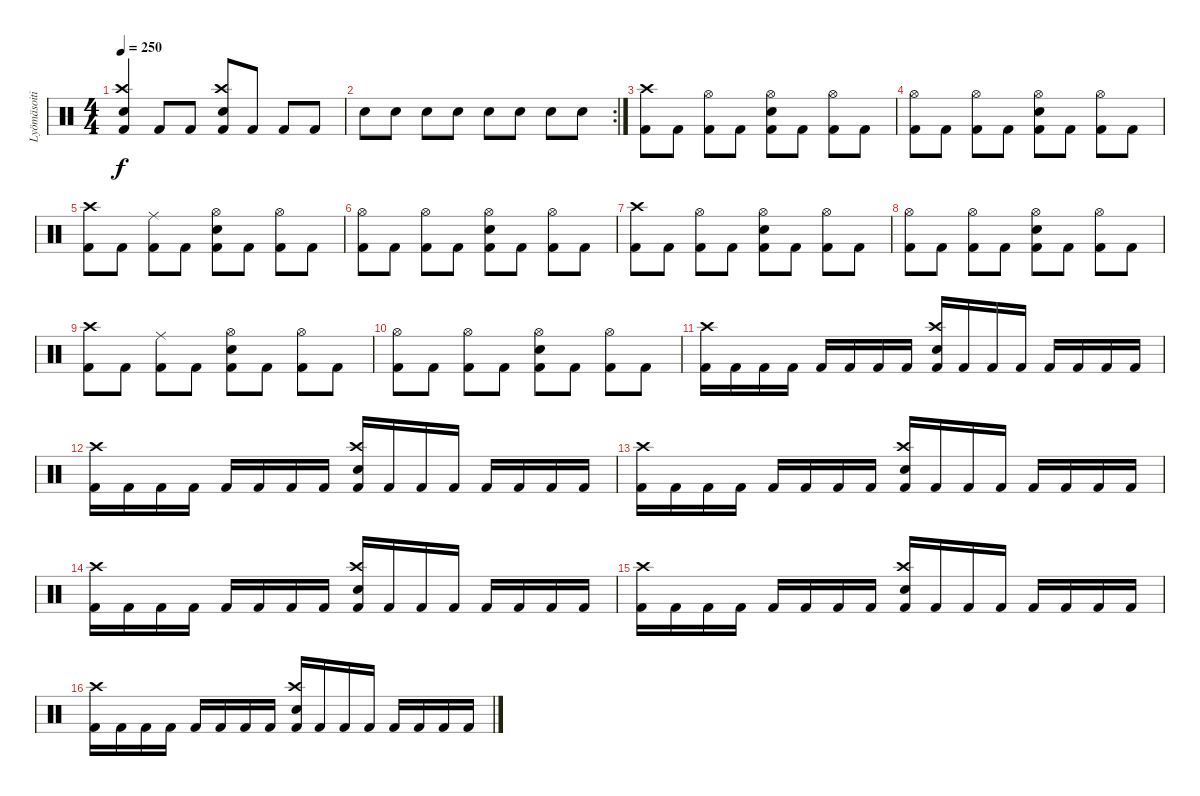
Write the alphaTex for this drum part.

\track ("Lyömäsoitin" "Lyömäsoiti") {instrument percussion}
\staff {score}
\articulation defaults
\ts (4 4)
\tempo 250
\clef neutral
\ks c
("Electric Snare (hit)" "Crash high (hit)" "Kick (hit) 2").4{dy f} "Kick (hit) 2".8 "Kick (hit) 2".8 ("Crash high (hit)" "Electric Snare (hit)" "Kick (hit) 2").8 "Kick (hit) 2".8 "Kick (hit) 2".8 "Kick (hit) 2".8 |
\rc 2 "Electric Snare (hit)".8 "Electric Snare (hit)".8 "Electric Snare (hit)".8 "Electric Snare (hit)".8 "Electric Snare (hit)".8 "Electric Snare (hit)".8 "Electric Snare (hit)".8 "Electric Snare (hit)".8
|
("Crash high (hit)" "Kick (hit) 2").8 "Kick (hit) 2".8 ("Hi-Hat (open)" "Kick (hit) 2").8 "Kick (hit) 2".8 ("Hi-Hat (open)" "Electric Snare (hit)" "Kick (hit) 2").8 "Kick (hit) 2".8 ("Hi-Hat (open)" "Kick (hit) 2").8 "Kick (hit) 2".8 |
("Hi-Hat (open)" "Kick (hit) 2").8 "Kick (hit) 2".8 ("Hi-Hat (open)" "Kick (hit) 2").8 "Kick (hit) 2".8 ("Hi-Hat (open)" "Electric Snare (hit)" "Kick (hit) 2").8 "Kick (hit) 2".8 ("Hi-Hat (open)" "Kick (hit) 2").8 "Kick (hit) 2".8 |
("Crash high (hit)" "Kick (hit) 2").8 "Kick (hit) 2".8 ("Ride (middle)" "Kick (hit) 2").8 "Kick (hit) 2".8 ("Hi-Hat (open)" "Electric Snare (hit)" "Kick (hit) 2").8 "Kick (hit) 2".8 ("Hi-Hat (open)" "Kick (hit) 2").8 "Kick (hit) 2".8 |
("Hi-Hat (open)" "Kick (hit) 2").8 "Kick (hit) 2".8 ("Hi-Hat (open)" "Kick (hit) 2").8 "Kick (hit) 2".8 ("Hi-Hat (open)" "Electric Snare (hit)" "Kick (hit) 2").8 "Kick (hit) 2".8 ("Hi-Hat (open)" "Kick (hit) 2").8 "Kick (hit) 2".8 |
("Crash high (hit)" "Kick (hit) 2").8 "Kick (hit) 2".8 ("Hi-Hat (open)" "Kick (hit) 2").8 "Kick (hit) 2".8 ("Hi-Hat (open)" "Electric Snare (hit)" "Kick (hit) 2").8 "Kick (hit) 2".8 ("Hi-Hat (open)" "Kick (hit) 2").8 "Kick (hit) 2".8 |
("Hi-Hat (open)" "Kick (hit) 2").8 "Kick (hit) 2".8 ("Hi-Hat (open)" "Kick (hit) 2").8 "Kick (hit) 2".8 ("Hi-Hat (open)" "Electric Snare (hit)" "Kick (hit) 2").8 "Kick (hit) 2".8 ("Hi-Hat (open)" "Kick (hit) 2").8 "Kick (hit) 2".8 |
("Crash high (hit)" "Kick (hit) 2").8 "Kick (hit) 2".8 ("Ride (middle)" "Kick (hit) 2").8 "Kick (hit) 2".8 ("Hi-Hat (open)" "Electric Snare (hit)" "Kick (hit) 2").8 "Kick (hit) 2".8 ("Hi-Hat (open)" "Kick (hit) 2").8 "Kick (hit) 2".8 |
("Hi-Hat (open)" "Kick (hit) 2").8 "Kick (hit) 2".8 ("Hi-Hat (open)" "Kick (hit) 2").8 "Kick (hit) 2".8 ("Hi-Hat (open)" "Electric Snare (hit)" "Kick (hit) 2").8 "Kick (hit) 2".8 ("Hi-Hat (open)" "Kick (hit) 2").8 "Kick (hit) 2".8 |
("Crash high (hit)" "Kick (hit) 2").16 "Kick (hit) 2".16 "Kick (hit) 2".16 "Kick (hit) 2".16 "Kick (hit) 2".16 "Kick (hit) 2".16 "Kick (hit) 2".16 "Kick (hit) 2".16 ("Electric Snare (hit)" "Crash high (hit)" "Kick (hit) 2").16 "Kick (hit) 2".16 "Kick (hit) 2".16 "Kick (hit) 2".16 "Kick (hit) 2".16 "Kick (hit) 2".16 "Kick (hit) 2".16 "Kick (hit) 2".16 |
("Crash high (hit)" "Kick (hit) 2").16 "Kick (hit) 2".16 "Kick (hit) 2".16 "Kick (hit) 2".16 "Kick (hit) 2".16 "Kick (hit) 2".16 "Kick (hit) 2".16 "Kick (hit) 2".16 ("Electric Snare (hit)" "Crash high (hit)" "Kick (hit) 2").16 "Kick (hit) 2".16 "Kick (hit) 2".16 "Kick (hit) 2".16 "Kick (hit) 2".16 "Kick (hit) 2".16 "Kick (hit) 2".16 "Kick (hit) 2".16 |
("Crash high (hit)" "Kick (hit) 2").16 "Kick (hit) 2".16 "Kick (hit) 2".16 "Kick (hit) 2".16 "Kick (hit) 2".16 "Kick (hit) 2".16 "Kick (hit) 2".16 "Kick (hit) 2".16 ("Electric Snare (hit)" "Crash high (hit)" "Kick (hit) 2").16 "Kick (hit) 2".16 "Kick (hit) 2".16 "Kick (hit) 2".16 "Kick (hit) 2".16 "Kick (hit) 2".16 "Kick (hit) 2".16 "Kick (hit) 2".16 |
("Crash high (hit)" "Kick (hit) 2").16 "Kick (hit) 2".16 "Kick (hit) 2".16 "Kick (hit) 2".16 "Kick (hit) 2".16 "Kick (hit) 2".16 "Kick (hit) 2".16 "Kick (hit) 2".16 ("Electric Snare (hit)" "Crash high (hit)" "Kick (hit) 2").16 "Kick (hit) 2".16 "Kick (hit) 2".16 "Kick (hit) 2".16 "Kick (hit) 2".16 "Kick (hit) 2".16 "Kick (hit) 2".16 "Kick (hit) 2".16 |
("Crash high (hit)" "Kick (hit) 2").16 "Kick (hit) 2".16 "Kick (hit) 2".16 "Kick (hit) 2".16 "Kick (hit) 2".16 "Kick (hit) 2".16 "Kick (hit) 2".16 "Kick (hit) 2".16 ("Electric Snare (hit)" "Crash high (hit)" "Kick (hit) 2").16 "Kick (hit) 2".16 "Kick (hit) 2".16 "Kick (hit) 2".16 "Kick (hit) 2".16 "Kick (hit) 2".16 "Kick (hit) 2".16 "Kick (hit) 2".16 |
("Crash high (hit)" "Kick (hit) 2").16 "Kick (hit) 2".16 "Kick (hit) 2".16 "Kick (hit) 2".16 "Kick (hit) 2".16 "Kick (hit) 2".16 "Kick (hit) 2".16 "Kick (hit) 2".16 ("Electric Snare (hit)" "Crash high (hit)" "Kick (hit) 2").16 "Kick (hit) 2".16 "Kick (hit) 2".16 "Kick (hit) 2".16 "Kick (hit) 2".16 "Kick (hit) 2".16 "Kick (hit) 2".16 "Kick (hit) 2".16
